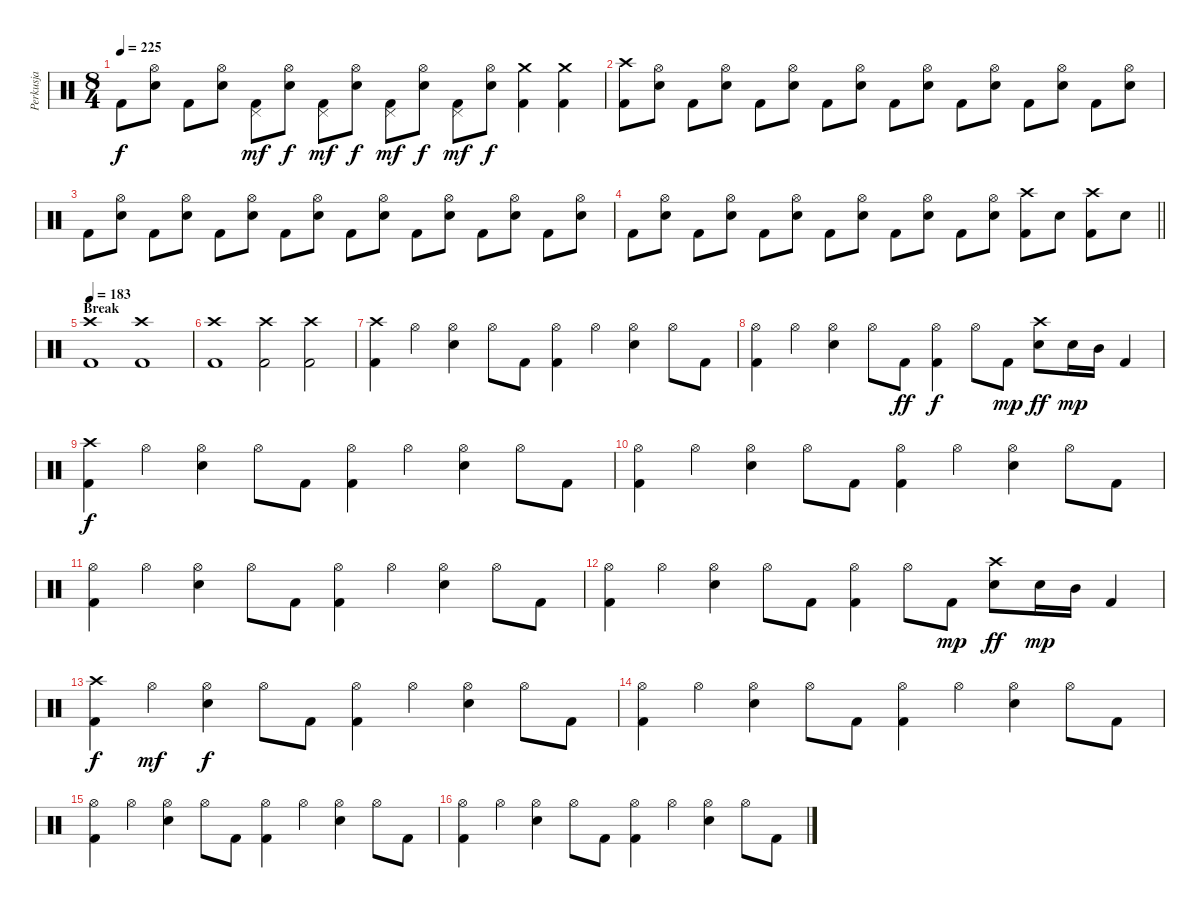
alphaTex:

\track ("Perkusja" "Perkusja") {instrument percussion}
\staff {score}
\articulation defaults
\ts (8 4)
\tempo 225
\clef neutral
\ks c "Kick (hit) 2".8{dy f}
("Hi-Hat (open)" "Snare (hit) 2").8 "Kick (hit) 2".8 ("Hi-Hat (open)" "Snare (hit) 2").8 ("Pedal Hi-Hat (hit)" "Kick (hit) 2").8{dy mf} ("Hi-Hat (open)" "Snare (hit) 2").8{dy f} ("Pedal Hi-Hat (hit)" "Kick (hit) 2").8{dy mf} ("Hi-Hat (open)" "Snare (hit) 2").8{dy f} ("Pedal Hi-Hat (hit)" "Kick (hit) 2").8{dy mf} ("Hi-Hat (open)" "Snare (hit) 2").8{dy f} ("Pedal Hi-Hat (hit)" "Kick (hit) 2").8{dy mf} ("Hi-Hat (open)" "Snare (hit) 2").8{dy f} ("Crash medium (hit)" "Kick (hit) 2").4 ("Crash medium (hit)" "Kick (hit) 2").4 |
("Crash high (hit)" "Kick (hit) 2").8 ("Hi-Hat (open)" "Snare (hit) 2").8 "Kick (hit) 2".8 ("Hi-Hat (open)" "Snare (hit) 2").8 "Kick (hit) 2".8 ("Hi-Hat (open)" "Snare (hit) 2").8 "Kick (hit) 2".8 ("Hi-Hat (open)" "Snare (hit) 2").8 "Kick (hit) 2".8 ("Hi-Hat (open)" "Snare (hit) 2").8 "Kick (hit) 2".8 ("Hi-Hat (open)" "Snare (hit) 2").8 "Kick (hit) 2".8 ("Hi-Hat (open)" "Snare (hit) 2").8 "Kick (hit) 2".8 ("Hi-Hat (open)" "Snare (hit) 2").8 |
"Kick (hit) 2".8 ("Hi-Hat (open)" "Snare (hit) 2").8 "Kick (hit) 2".8 ("Hi-Hat (open)" "Snare (hit) 2").8 "Kick (hit) 2".8 ("Hi-Hat (open)" "Snare (hit) 2").8 "Kick (hit) 2".8 ("Hi-Hat (open)" "Snare (hit) 2").8 "Kick (hit) 2".8 ("Hi-Hat (open)" "Snare (hit) 2").8 "Kick (hit) 2".8 ("Hi-Hat (open)" "Snare (hit) 2").8 "Kick (hit) 2".8 ("Hi-Hat (open)" "Snare (hit) 2").8 "Kick (hit) 2".8 ("Hi-Hat (open)" "Snare (hit) 2").8 |
\barLineRight lightlight "Kick (hit) 2".8
("Hi-Hat (open)" "Snare (hit) 2").8 "Kick (hit) 2".8 ("Hi-Hat (open)" "Snare (hit) 2").8 "Kick (hit) 2".8 ("Hi-Hat (open)" "Snare (hit) 2").8 "Kick (hit) 2".8 ("Hi-Hat (open)" "Snare (hit) 2").8 "Kick (hit) 2".8 ("Hi-Hat (open)" "Snare (hit) 2").8 "Kick (hit) 2".8 ("Hi-Hat (open)" "Snare (hit) 2").8 ("Crash high (hit)" "Kick (hit) 2").8 "Snare (hit) 2".8 ("Crash high (hit)" "Kick (hit) 2").8 "Snare (hit) 2".8 |
\section ("" "Break")
\tempo 183
("Crash high (hit)" "Kick (hit) 2").1 ("Crash high (hit)" "Kick (hit) 2").1 |
("Crash high (hit)" "Kick (hit) 2").1 ("Crash high (hit)" "Kick (hit) 2").2 ("Crash high (hit)" "Kick (hit) 2").2 |
("Crash high (hit)" "Kick (hit) 2").4 "Hi-Hat (open)".4 ("Hi-Hat (open)" "Snare (hit) 2").4 "Hi-Hat (open)".8 "Kick (hit) 2".8 ("Hi-Hat (open)" "Kick (hit) 2").4 "Hi-Hat (open)".4 ("Hi-Hat (open)" "Snare (hit) 2").4 "Hi-Hat (open)".8 "Kick (hit) 2".8 |
("Hi-Hat (open)" "Kick (hit) 2").4 "Hi-Hat (open)".4 ("Hi-Hat (open)" "Snare (hit) 2").4 "Hi-Hat (open)".8 "Kick (hit) 2".8{dy ff} ("Hi-Hat (open)" "Kick (hit) 2").4{dy f} "Hi-Hat (open)".8 "Kick (hit) 2".8{dy mp} ("Crash high (hit)" "Snare (hit) 2").8{dy ff} "Snare (hit) 2".16{dy mp} "Mid Tom (hit)".16 "Kick (hit) 2".4 |
("Crash high (hit)" "Kick (hit) 2").4{dy f} "Hi-Hat (open)".4 ("Hi-Hat (open)" "Snare (hit) 2").4 "Hi-Hat (open)".8 "Kick (hit) 2".8 ("Hi-Hat (open)" "Kick (hit) 2").4 "Hi-Hat (open)".4 ("Hi-Hat (open)" "Snare (hit) 2").4 "Hi-Hat (open)".8 "Kick (hit) 2".8 |
("Hi-Hat (open)" "Kick (hit) 2").4 "Hi-Hat (open)".4 ("Hi-Hat (open)" "Snare (hit) 2").4 "Hi-Hat (open)".8 "Kick (hit) 2".8 ("Hi-Hat (open)" "Kick (hit) 2").4 "Hi-Hat (open)".4 ("Hi-Hat (open)" "Snare (hit) 2").4 "Hi-Hat (open)".8 "Kick (hit) 2".8 |
("Hi-Hat (open)" "Kick (hit) 2").4 "Hi-Hat (open)".4 ("Hi-Hat (open)" "Snare (hit) 2").4 "Hi-Hat (open)".8 "Kick (hit) 2".8 ("Hi-Hat (open)" "Kick (hit) 2").4 "Hi-Hat (open)".4 ("Hi-Hat (open)" "Snare (hit) 2").4 "Hi-Hat (open)".8 "Kick (hit) 2".8 |
("Hi-Hat (open)" "Kick (hit) 2").4 "Hi-Hat (open)".4 ("Hi-Hat (open)" "Snare (hit) 2").4 "Hi-Hat (open)".8 "Kick (hit) 2".8 ("Hi-Hat (open)" "Kick (hit) 2").4 "Hi-Hat (open)".8 "Kick (hit) 2".8{dy mp} ("Crash high (hit)" "Snare (hit) 2").8{dy ff} "Snare (hit) 2".16{dy mp} "Mid Tom (hit)".16 "Kick (hit) 2".4 |
("Crash high (hit)" "Kick (hit) 2").4{dy f} "Hi-Hat (open)".4{dy mf} ("Hi-Hat (open)" "Snare (hit) 2").4{dy f} "Hi-Hat (open)".8 "Kick (hit) 2".8 ("Hi-Hat (open)" "Kick (hit) 2").4 "Hi-Hat (open)".4 ("Hi-Hat (open)" "Snare (hit) 2").4 "Hi-Hat (open)".8 "Kick (hit) 2".8 |
("Hi-Hat (open)" "Kick (hit) 2").4 "Hi-Hat (open)".4 ("Hi-Hat (open)" "Snare (hit) 2").4 "Hi-Hat (open)".8 "Kick (hit) 2".8 ("Hi-Hat (open)" "Kick (hit) 2").4 "Hi-Hat (open)".4 ("Hi-Hat (open)" "Snare (hit) 2").4 "Hi-Hat (open)".8 "Kick (hit) 2".8 |
("Hi-Hat (open)" "Kick (hit) 2").4 "Hi-Hat (open)".4 ("Hi-Hat (open)" "Snare (hit) 2").4 "Hi-Hat (open)".8 "Kick (hit) 2".8 ("Hi-Hat (open)" "Kick (hit) 2").4 "Hi-Hat (open)".4 ("Hi-Hat (open)" "Snare (hit) 2").4 "Hi-Hat (open)".8 "Kick (hit) 2".8 |
("Hi-Hat (open)" "Kick (hit) 2").4 "Hi-Hat (open)".4 ("Hi-Hat (open)" "Snare (hit) 2").4 "Hi-Hat (open)".8 "Kick (hit) 2".8 ("Hi-Hat (open)" "Kick (hit) 2").4 "Hi-Hat (open)".4 ("Hi-Hat (open)" "Snare (hit) 2").4 "Hi-Hat (open)".8 "Kick (hit) 2".8
